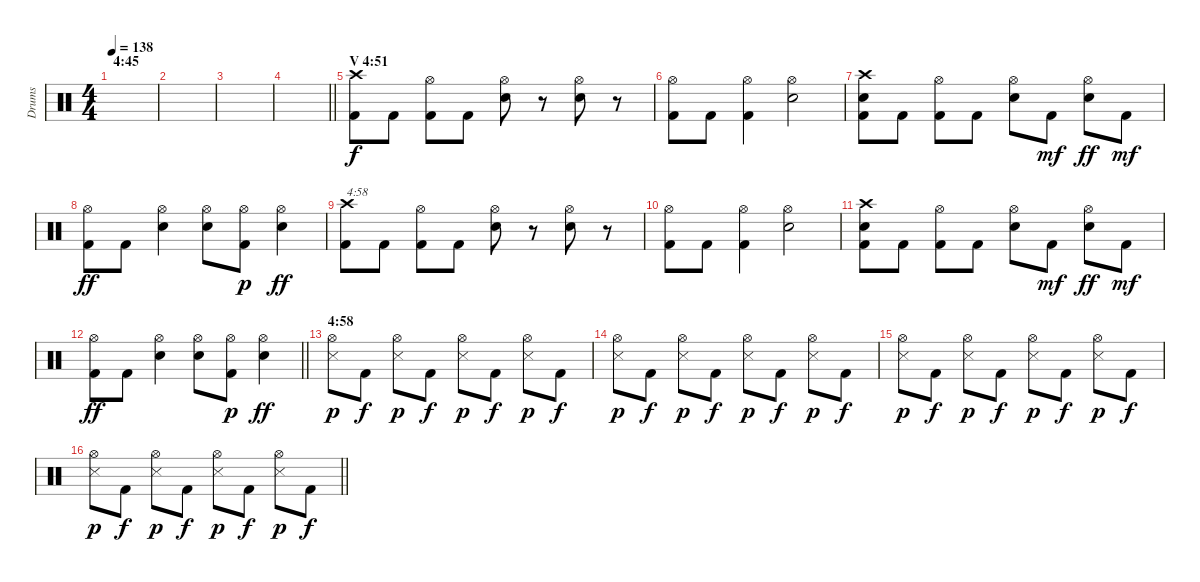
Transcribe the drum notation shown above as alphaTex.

\track ("Drums" "Drums") {instrument percussion}
\staff {score}
\articulation defaults
\ts (4 4)
\section ("" "4:45")
\tempo 138
\clef neutral
\ks c
|
|
|
\barLineRight lightlight
|
\section ("" "V 4:51")
("Crash high (hit)" "Kick (hit) 2").8 "Kick (hit) 2".8 ("Hi-Hat (open)" "Kick (hit) 2").8 "Kick (hit) 2".8 ("Hi-Hat (open)" "Electric Snare (hit)").8 r.8 ("Hi-Hat (open)" "Electric Snare (hit)").8 r.8 |
("Hi-Hat (open)" "Kick (hit) 2").8 "Kick (hit) 2".8 ("Hi-Hat (open)" "Kick (hit) 2").4 ("Hi-Hat (open)" "Electric Snare (hit)").2 |
("Crash high (hit)" "Electric Snare (hit)" "Kick (hit) 2").8 "Kick (hit) 2".8 ("Hi-Hat (open)" "Kick (hit) 2").8 "Kick (hit) 2".8 ("Hi-Hat (open)" "Electric Snare (hit)").8 "Kick (hit) 2".8{dy mf} ("Hi-Hat (open)" "Electric Snare (hit)").8{dy ff} "Kick (hit) 2".8{dy mf} |
("Hi-Hat (open)" "Kick (hit) 2").8{dy ff} "Kick (hit) 2".8 ("Hi-Hat (open)" "Electric Snare (hit)").4 ("Hi-Hat (open)" "Electric Snare (hit)").8 ("Hi-Hat (open)" "Kick (hit) 2").8{dy p} ("Hi-Hat (open)" "Electric Snare (hit)").4{dy ff} |
("Crash high (hit)" "Kick (hit) 2").8{txt "4:58"} "Kick (hit) 2".8 ("Hi-Hat (open)" "Kick (hit) 2").8 "Kick (hit) 2".8 ("Hi-Hat (open)" "Electric Snare (hit)").8 r.8 ("Hi-Hat (open)" "Electric Snare (hit)").8 r.8 |
("Hi-Hat (open)" "Kick (hit) 2").8 "Kick (hit) 2".8 ("Hi-Hat (open)" "Kick (hit) 2").4 ("Hi-Hat (open)" "Electric Snare (hit)").2 |
("Crash high (hit)" "Electric Snare (hit)" "Kick (hit) 2").8 "Kick (hit) 2".8 ("Hi-Hat (open)" "Kick (hit) 2").8 "Kick (hit) 2".8 ("Hi-Hat (open)" "Electric Snare (hit)").8 "Kick (hit) 2".8{dy mf} ("Hi-Hat (open)" "Electric Snare (hit)").8{dy ff} "Kick (hit) 2".8{dy mf} |
\barLineRight lightlight
("Hi-Hat (open)" "Kick (hit) 2").8{dy ff} "Kick (hit) 2".8 ("Hi-Hat (open)" "Electric Snare (hit)").4 ("Hi-Hat (open)" "Electric Snare (hit)").8 ("Hi-Hat (open)" "Kick (hit) 2").8{dy p} ("Hi-Hat (open)" "Electric Snare (hit)").4{dy ff} |
\section ("" "4:58")
("Hi-Hat (open)" "Snare (side stick) 3").8{dy p} "Kick (hit) 2".8{dy f} ("Hi-Hat (open)" "Snare (side stick) 3").8{dy p} "Kick (hit) 2".8{dy f} ("Hi-Hat (open)" "Snare (side stick) 3").8{dy p} "Kick (hit) 2".8{dy f} ("Hi-Hat (open)" "Snare (side stick) 3").8{dy p} "Kick (hit) 2".8{dy f} |
("Hi-Hat (open)" "Snare (side stick) 3").8{dy p} "Kick (hit) 2".8{dy f} ("Hi-Hat (open)" "Snare (side stick) 3").8{dy p} "Kick (hit) 2".8{dy f} ("Hi-Hat (open)" "Snare (side stick) 3").8{dy p} "Kick (hit) 2".8{dy f} ("Hi-Hat (open)" "Snare (side stick) 3").8{dy p} "Kick (hit) 2".8{dy f} |
("Hi-Hat (open)" "Snare (side stick) 3").8{dy p} "Kick (hit) 2".8{dy f} ("Hi-Hat (open)" "Snare (side stick) 3").8{dy p} "Kick (hit) 2".8{dy f} ("Hi-Hat (open)" "Snare (side stick) 3").8{dy p} "Kick (hit) 2".8{dy f} ("Hi-Hat (open)" "Snare (side stick) 3").8{dy p} "Kick (hit) 2".8{dy f} |
\barLineRight lightlight
("Hi-Hat (open)" "Snare (side stick) 3").8{dy p} "Kick (hit) 2".8{dy f} ("Hi-Hat (open)" "Snare (side stick) 3").8{dy p} "Kick (hit) 2".8{dy f} ("Hi-Hat (open)" "Snare (side stick) 3").8{dy p} "Kick (hit) 2".8{dy f} ("Hi-Hat (open)" "Snare (side stick) 3").8{dy p} "Kick (hit) 2".8{dy f}
